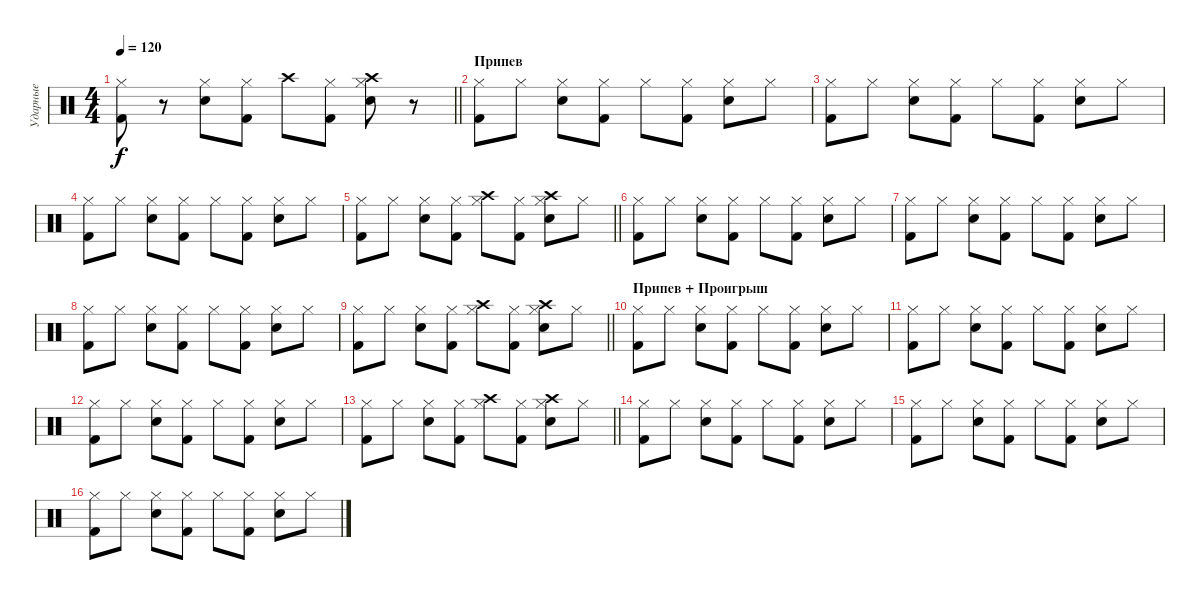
\track ("Ударные" "Ударные") {instrument percussion}
\staff {score}
\articulation defaults
\ts (4 4)
\tempo 120
\clef neutral
\barLineRight lightlight
\ks c
("Kick (hit) 2" "Hi-Hat (closed)").8{dy f} r.8 ("Snare (hit) 2" "Hi-Hat (closed)").8 ("Kick (hit) 2" "Hi-Hat (closed)").8 "Crash high (hit)".8 ("Kick (hit) 2" "Hi-Hat (closed)").8 ("Snare (hit) 2" "Hi-Hat (closed)" "Crash high (hit)").8 r.8 |
\section ("" "Припев")
("Kick (hit) 2" "Hi-Hat (closed)").8 "Hi-Hat (closed)".8 ("Snare (hit) 2" "Hi-Hat (closed)").8 ("Kick (hit) 2" "Hi-Hat (closed)").8 "Hi-Hat (closed)".8 ("Kick (hit) 2" "Hi-Hat (closed)").8 ("Snare (hit) 2" "Hi-Hat (closed)").8 "Hi-Hat (closed)".8 |
("Kick (hit) 2" "Hi-Hat (closed)").8 "Hi-Hat (closed)".8 ("Snare (hit) 2" "Hi-Hat (closed)").8 ("Kick (hit) 2" "Hi-Hat (closed)").8 "Hi-Hat (closed)".8 ("Kick (hit) 2" "Hi-Hat (closed)").8 ("Snare (hit) 2" "Hi-Hat (closed)").8 "Hi-Hat (closed)".8 |
("Kick (hit) 2" "Hi-Hat (closed)").8 "Hi-Hat (closed)".8 ("Snare (hit) 2" "Hi-Hat (closed)").8 ("Kick (hit) 2" "Hi-Hat (closed)").8 "Hi-Hat (closed)".8 ("Kick (hit) 2" "Hi-Hat (closed)").8 ("Snare (hit) 2" "Hi-Hat (closed)").8 "Hi-Hat (closed)".8 |
\barLineRight lightlight
("Kick (hit) 2" "Hi-Hat (closed)").8 "Hi-Hat (closed)".8 ("Snare (hit) 2" "Hi-Hat (closed)").8 ("Kick (hit) 2" "Hi-Hat (closed)").8 ("Hi-Hat (closed)" "Crash high (hit)").8 ("Kick (hit) 2" "Hi-Hat (closed)").8 ("Snare (hit) 2" "Hi-Hat (closed)" "Crash high (hit)").8 "Hi-Hat (closed)".8 |
("Kick (hit) 2" "Hi-Hat (closed)").8 "Hi-Hat (closed)".8 ("Snare (hit) 2" "Hi-Hat (closed)").8 ("Kick (hit) 2" "Hi-Hat (closed)").8 "Hi-Hat (closed)".8 ("Kick (hit) 2" "Hi-Hat (closed)").8 ("Snare (hit) 2" "Hi-Hat (closed)").8 "Hi-Hat (closed)".8 |
("Kick (hit) 2" "Hi-Hat (closed)").8 "Hi-Hat (closed)".8 ("Snare (hit) 2" "Hi-Hat (closed)").8 ("Kick (hit) 2" "Hi-Hat (closed)").8 "Hi-Hat (closed)".8 ("Kick (hit) 2" "Hi-Hat (closed)").8 ("Snare (hit) 2" "Hi-Hat (closed)").8 "Hi-Hat (closed)".8 |
("Kick (hit) 2" "Hi-Hat (closed)").8 "Hi-Hat (closed)".8 ("Snare (hit) 2" "Hi-Hat (closed)").8 ("Kick (hit) 2" "Hi-Hat (closed)").8 "Hi-Hat (closed)".8 ("Kick (hit) 2" "Hi-Hat (closed)").8 ("Snare (hit) 2" "Hi-Hat (closed)").8 "Hi-Hat (closed)".8 |
\barLineRight lightlight
("Kick (hit) 2" "Hi-Hat (closed)").8 "Hi-Hat (closed)".8 ("Snare (hit) 2" "Hi-Hat (closed)").8 ("Kick (hit) 2" "Hi-Hat (closed)").8 ("Hi-Hat (closed)" "Crash high (hit)").8 ("Kick (hit) 2" "Hi-Hat (closed)").8 ("Snare (hit) 2" "Hi-Hat (closed)" "Crash high (hit)").8 "Hi-Hat (closed)".8 |
\section ("" "Припев + Проигрыш")
("Kick (hit) 2" "Hi-Hat (closed)").8 "Hi-Hat (closed)".8 ("Snare (hit) 2" "Hi-Hat (closed)").8 ("Kick (hit) 2" "Hi-Hat (closed)").8 "Hi-Hat (closed)".8 ("Kick (hit) 2" "Hi-Hat (closed)").8 ("Snare (hit) 2" "Hi-Hat (closed)").8 "Hi-Hat (closed)".8 |
("Kick (hit) 2" "Hi-Hat (closed)").8 "Hi-Hat (closed)".8 ("Snare (hit) 2" "Hi-Hat (closed)").8 ("Kick (hit) 2" "Hi-Hat (closed)").8 "Hi-Hat (closed)".8 ("Kick (hit) 2" "Hi-Hat (closed)").8 ("Snare (hit) 2" "Hi-Hat (closed)").8 "Hi-Hat (closed)".8 |
("Kick (hit) 2" "Hi-Hat (closed)").8 "Hi-Hat (closed)".8 ("Snare (hit) 2" "Hi-Hat (closed)").8 ("Kick (hit) 2" "Hi-Hat (closed)").8 "Hi-Hat (closed)".8 ("Kick (hit) 2" "Hi-Hat (closed)").8 ("Snare (hit) 2" "Hi-Hat (closed)").8 "Hi-Hat (closed)".8 |
\barLineRight lightlight
("Kick (hit) 2" "Hi-Hat (closed)").8 "Hi-Hat (closed)".8 ("Snare (hit) 2" "Hi-Hat (closed)").8 ("Kick (hit) 2" "Hi-Hat (closed)").8 ("Hi-Hat (closed)" "Crash high (hit)").8 ("Kick (hit) 2" "Hi-Hat (closed)").8 ("Snare (hit) 2" "Hi-Hat (closed)" "Crash high (hit)").8 "Hi-Hat (closed)".8 |
("Kick (hit) 2" "Hi-Hat (closed)").8 "Hi-Hat (closed)".8 ("Snare (hit) 2" "Hi-Hat (closed)").8 ("Kick (hit) 2" "Hi-Hat (closed)").8 "Hi-Hat (closed)".8 ("Kick (hit) 2" "Hi-Hat (closed)").8 ("Snare (hit) 2" "Hi-Hat (closed)").8 "Hi-Hat (closed)".8 |
("Kick (hit) 2" "Hi-Hat (closed)").8 "Hi-Hat (closed)".8 ("Snare (hit) 2" "Hi-Hat (closed)").8 ("Kick (hit) 2" "Hi-Hat (closed)").8 "Hi-Hat (closed)".8 ("Kick (hit) 2" "Hi-Hat (closed)").8 ("Snare (hit) 2" "Hi-Hat (closed)").8 "Hi-Hat (closed)".8 |
("Kick (hit) 2" "Hi-Hat (closed)").8 "Hi-Hat (closed)".8 ("Snare (hit) 2" "Hi-Hat (closed)").8 ("Kick (hit) 2" "Hi-Hat (closed)").8 "Hi-Hat (closed)".8 ("Kick (hit) 2" "Hi-Hat (closed)").8 ("Snare (hit) 2" "Hi-Hat (closed)").8 "Hi-Hat (closed)".8
